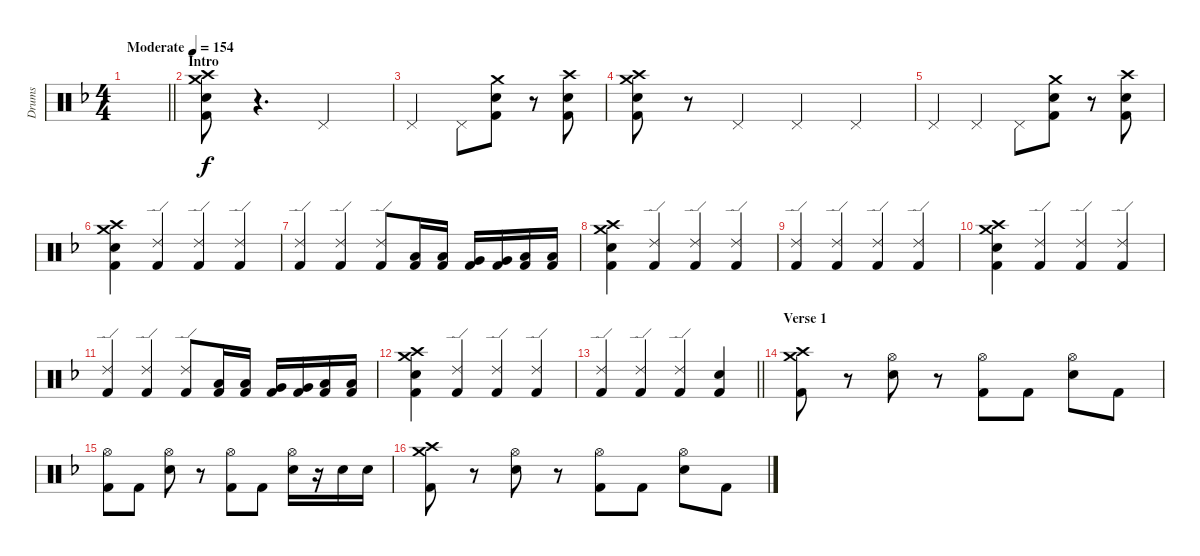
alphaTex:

\track ("Drums" "Drums") {instrument percussion}
\staff {score}
\articulation defaults
\ts (4 4)
\tempo (154 "Moderate")
\clef neutral
\barLineRight lightlight
\ks f
|
\section ("" "Intro")
("Crash high (hit)" "Crash medium (hit)" "Electric Snare (hit)" "Kick (hit) 2").8 r.4{d} "Pedal Hi-Hat (hit)".2 |
"Pedal Hi-Hat (hit)".2 "Pedal Hi-Hat (hit)".8 ("Crash medium (hit)" "Electric Snare (hit)" "Kick (hit) 2").8 r.8 ("Crash high (hit)" "Electric Snare (hit)" "Kick (hit) 2").8 |
("Crash high (hit)" "Crash medium (hit)" "Electric Snare (hit)" "Kick (hit) 2").8 r.8 "Pedal Hi-Hat (hit)".4 "Pedal Hi-Hat (hit)".4 "Pedal Hi-Hat (hit)".4 |
"Pedal Hi-Hat (hit)".4 "Pedal Hi-Hat (hit)".4 "Pedal Hi-Hat (hit)".8 ("Crash medium (hit)" "Electric Snare (hit)" "Kick (hit) 2").8 r.8 ("Crash high (hit)" "Electric Snare (hit)" "Kick (hit) 2").8 |
("Crash high (hit)" "Crash medium (hit)" "Electric Snare (hit)" "Kick (hit) 2").4 ("Ride (edge) 2" "Kick (hit) 2").4 ("Ride (edge) 2" "Kick (hit) 2").4 ("Ride (edge) 2" "Kick (hit) 2").4 |
("Ride (edge) 2" "Kick (hit) 2").4 ("Ride (edge) 2" "Kick (hit) 2").4 ("Ride (edge) 2" "Kick (hit) 2").8 ("Low Tom (hit)" "Kick (hit) 2").16 ("Low Tom (hit)" "Kick (hit) 2").16 ("Very Low Tom (hit)" "Kick (hit) 2").16 ("Very Low Tom (hit)" "Kick (hit) 2").16 ("Low Floor Tom (hit)" "Kick (hit) 2").16 ("Low Floor Tom (hit)" "Kick (hit) 2").16 |
("Crash high (hit)" "Crash medium (hit)" "Electric Snare (hit)" "Kick (hit) 2").4 ("Ride (edge) 2" "Kick (hit) 2").4 ("Ride (edge) 2" "Kick (hit) 2").4 ("Ride (edge) 2" "Kick (hit) 2").4 |
("Ride (edge) 2" "Kick (hit) 2").4 ("Ride (edge) 2" "Kick (hit) 2").4 ("Ride (edge) 2" "Kick (hit) 2").4 ("Ride (edge) 2" "Kick (hit) 2").4 |
("Crash high (hit)" "Crash medium (hit)" "Electric Snare (hit)" "Kick (hit) 2").4 ("Ride (edge) 2" "Kick (hit) 2").4 ("Ride (edge) 2" "Kick (hit) 2").4 ("Ride (edge) 2" "Kick (hit) 2").4 |
("Ride (edge) 2" "Kick (hit) 2").4 ("Ride (edge) 2" "Kick (hit) 2").4 ("Ride (edge) 2" "Kick (hit) 2").8 ("Low Tom (hit)" "Kick (hit) 2").16 ("Low Tom (hit)" "Kick (hit) 2").16 ("Very Low Tom (hit)" "Kick (hit) 2").16 ("Very Low Tom (hit)" "Kick (hit) 2").16 ("Low Floor Tom (hit)" "Kick (hit) 2").16 ("Low Floor Tom (hit)" "Kick (hit) 2").16 |
("Crash high (hit)" "Crash medium (hit)" "Electric Snare (hit)" "Kick (hit) 2").4 ("Ride (edge) 2" "Kick (hit) 2").4 ("Ride (edge) 2" "Kick (hit) 2").4 ("Ride (edge) 2" "Kick (hit) 2").4 |
\barLineRight lightlight
("Ride (edge) 2" "Kick (hit) 2").4 ("Ride (edge) 2" "Kick (hit) 2").4 ("Ride (edge) 2" "Kick (hit) 2").4 ("Electric Snare (hit)" "Kick (hit) 2").4 |
\section ("" "Verse 1")
("Crash high (hit)" "Crash medium (hit)" "Kick (hit) 2").8 r.8 ("Hi-Hat (open)" "Electric Snare (hit)").8 r.8 ("Hi-Hat (open)" "Kick (hit) 2").8 "Kick (hit) 2".8 ("Hi-Hat (open)" "Electric Snare (hit)").8 "Kick (hit) 2".8 |
("Hi-Hat (open)" "Kick (hit) 2").8 "Kick (hit) 2".8 ("Hi-Hat (open)" "Electric Snare (hit)").8 r.8 ("Hi-Hat (open)" "Kick (hit) 2").8 "Kick (hit) 2".8 ("Hi-Hat (open)" "Electric Snare (hit)").16 r.16 "Electric Snare (hit)".16 "Electric Snare (hit)".16 |
("Crash high (hit)" "Crash medium (hit)" "Kick (hit) 2").8 r.8 ("Hi-Hat (open)" "Electric Snare (hit)").8 r.8 ("Hi-Hat (open)" "Kick (hit) 2").8 "Kick (hit) 2".8 ("Hi-Hat (open)" "Electric Snare (hit)").8 "Kick (hit) 2".8
